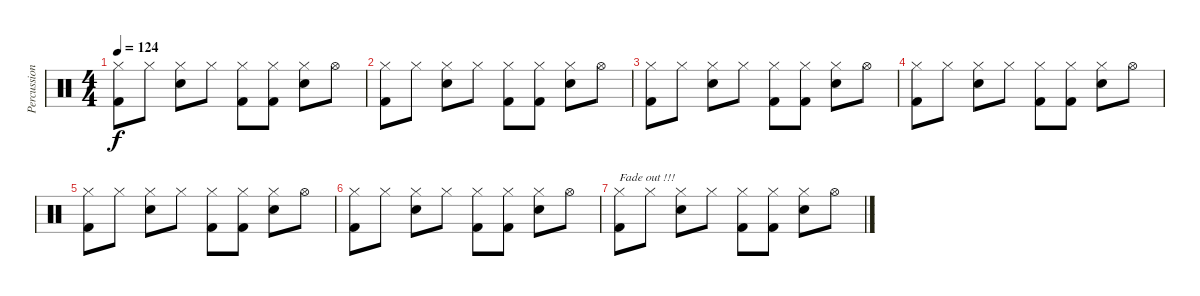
\track ("Percussions" "Percussion") {instrument percussion}
\staff {score}
\articulation defaults
\ts (4 4)
\tempo 124
\clef neutral
\ks c
("Hi-Hat (closed)" "Kick (hit) 2").8{dy f} "Hi-Hat (closed)".8 ("Hi-Hat (closed)" "Snare (hit) 2").8 "Hi-Hat (closed)".8 ("Hi-Hat (closed)" "Kick (hit) 2").8 ("Hi-Hat (closed)" "Kick (hit) 2").8 ("Hi-Hat (closed)" "Snare (hit) 2").8 "Hi-Hat (open)".8 |
("Hi-Hat (closed)" "Kick (hit) 2").8 "Hi-Hat (closed)".8 ("Hi-Hat (closed)" "Snare (hit) 2").8 "Hi-Hat (closed)".8 ("Hi-Hat (closed)" "Kick (hit) 2").8 ("Hi-Hat (closed)" "Kick (hit) 2").8 ("Hi-Hat (closed)" "Snare (hit) 2").8 "Hi-Hat (open)".8 |
("Hi-Hat (closed)" "Kick (hit) 2").8 "Hi-Hat (closed)".8 ("Hi-Hat (closed)" "Snare (hit) 2").8 "Hi-Hat (closed)".8 ("Hi-Hat (closed)" "Kick (hit) 2").8 ("Hi-Hat (closed)" "Kick (hit) 2").8 ("Hi-Hat (closed)" "Snare (hit) 2").8 "Hi-Hat (open)".8 |
("Hi-Hat (closed)" "Kick (hit) 2").8 "Hi-Hat (closed)".8 ("Hi-Hat (closed)" "Snare (hit) 2").8 "Hi-Hat (closed)".8 ("Hi-Hat (closed)" "Kick (hit) 2").8 ("Hi-Hat (closed)" "Kick (hit) 2").8 ("Hi-Hat (closed)" "Snare (hit) 2").8 "Hi-Hat (open)".8 |
("Hi-Hat (closed)" "Kick (hit) 2").8 "Hi-Hat (closed)".8 ("Hi-Hat (closed)" "Snare (hit) 2").8 "Hi-Hat (closed)".8 ("Hi-Hat (closed)" "Kick (hit) 2").8 ("Hi-Hat (closed)" "Kick (hit) 2").8 ("Hi-Hat (closed)" "Snare (hit) 2").8 "Hi-Hat (open)".8 |
("Hi-Hat (closed)" "Kick (hit) 2").8 "Hi-Hat (closed)".8 ("Hi-Hat (closed)" "Snare (hit) 2").8 "Hi-Hat (closed)".8 ("Hi-Hat (closed)" "Kick (hit) 2").8 ("Hi-Hat (closed)" "Kick (hit) 2").8 ("Hi-Hat (closed)" "Snare (hit) 2").8 "Hi-Hat (open)".8 |
("Hi-Hat (closed)" "Kick (hit) 2").8{txt "Fade out !!!"} "Hi-Hat (closed)".8 ("Hi-Hat (closed)" "Snare (hit) 2").8 "Hi-Hat (closed)".8 ("Hi-Hat (closed)" "Kick (hit) 2").8 ("Hi-Hat (closed)" "Kick (hit) 2").8 ("Hi-Hat (closed)" "Snare (hit) 2").8 "Hi-Hat (open)".8
